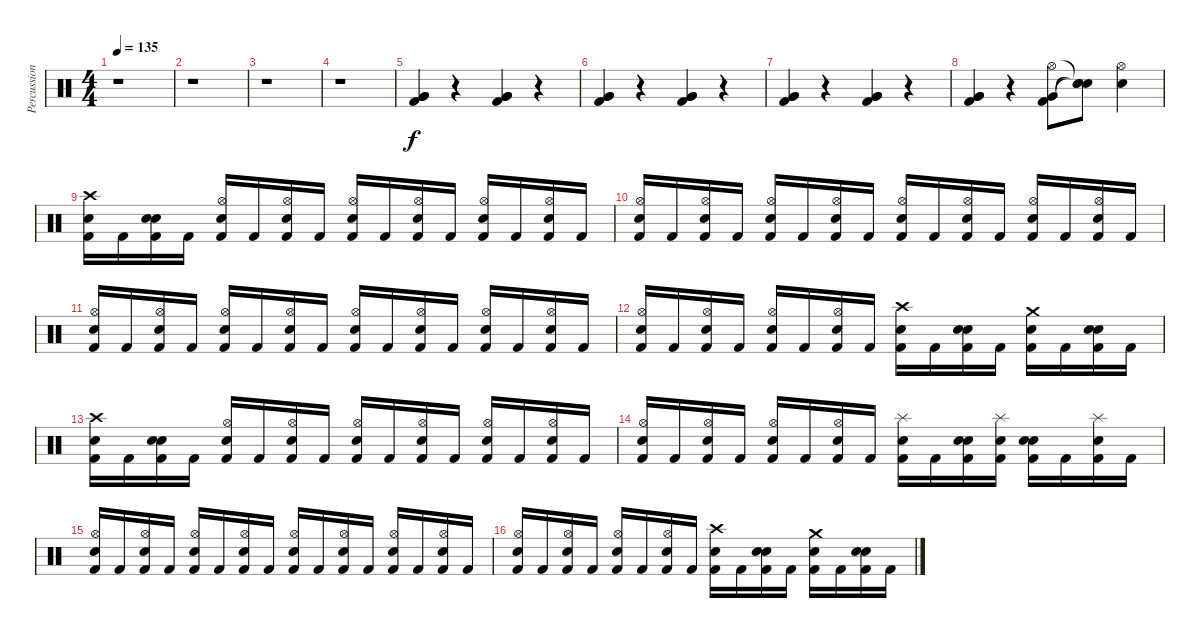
\track ("Percussion" "Percussion") {instrument percussion}
\staff {score}
\articulation defaults
\ts (4 4)
\tempo 135
\clef neutral
\ks c
r.1{dy f} |
r.1 |
r.1 |
r.1 |
("Very Low Tom (hit)" "Very Low Tom (hit)" "Kick (hit) 2").4 r.4 ("Very Low Tom (hit)" "Very Low Tom (hit)" "Kick (hit) 2").4 r.4 |
("Very Low Tom (hit)" "Very Low Tom (hit)" "Kick (hit) 2").4 r.4 ("Very Low Tom (hit)" "Very Low Tom (hit)" "Kick (hit) 2").4 r.4 |
("Very Low Tom (hit)" "Very Low Tom (hit)" "Kick (hit) 2").4 r.4 ("Very Low Tom (hit)" "Very Low Tom (hit)" "Kick (hit) 2").4 r.4 |
("Very Low Tom (hit)" "Very Low Tom (hit)" "Kick (hit) 2").4 r.4 ("Hi-Hat (open)" "Very Low Tom (hit)" "Kick (hit) 2").8 ("Snare (hit)"{t} "Snare (hit)"{t} "Snare (hit)"{t}).8 ("Hi-Hat (open)" "Snare (hit) 2").4 |
("Crash high (hit)" "Snare (hit) 2" "Kick (hit) 2").16 "Kick (hit) 2".16 ("Snare (hit)" "Snare (hit)" "Kick (hit) 2").16 "Kick (hit) 2".16 ("Hi-Hat (open)" "Snare (hit) 2" "Kick (hit) 2").16 "Kick (hit) 2".16 ("Hi-Hat (open)" "Snare (hit)" "Kick (hit) 2").16 "Kick (hit) 2".16 ("Hi-Hat (open)" "Snare (hit) 2" "Kick (hit) 2").16 "Kick (hit) 2".16 ("Hi-Hat (open)" "Snare (hit)" "Kick (hit) 2").16 "Kick (hit) 2".16 ("Hi-Hat (open)" "Snare (hit) 2" "Kick (hit) 2").16 "Kick (hit) 2".16 ("Hi-Hat (open)" "Snare (hit)" "Kick (hit) 2").16 "Kick (hit) 2".16 |
("Hi-Hat (open)" "Snare (hit) 2" "Kick (hit) 2").16 "Kick (hit) 2".16 ("Hi-Hat (open)" "Snare (hit)" "Kick (hit) 2").16 "Kick (hit) 2".16 ("Hi-Hat (open)" "Snare (hit) 2" "Kick (hit) 2").16 "Kick (hit) 2".16 ("Hi-Hat (open)" "Snare (hit)" "Kick (hit) 2").16 "Kick (hit) 2".16 ("Hi-Hat (open)" "Snare (hit) 2" "Kick (hit) 2").16 "Kick (hit) 2".16 ("Hi-Hat (open)" "Snare (hit)" "Kick (hit) 2").16 "Kick (hit) 2".16 ("Hi-Hat (open)" "Snare (hit) 2" "Kick (hit) 2").16 "Kick (hit) 2".16 ("Hi-Hat (open)" "Snare (hit)" "Kick (hit) 2").16 "Kick (hit) 2".16 |
("Hi-Hat (open)" "Snare (hit) 2" "Kick (hit) 2").16 "Kick (hit) 2".16 ("Hi-Hat (open)" "Snare (hit)" "Kick (hit) 2").16 "Kick (hit) 2".16 ("Hi-Hat (open)" "Snare (hit) 2" "Kick (hit) 2").16 "Kick (hit) 2".16 ("Hi-Hat (open)" "Snare (hit)" "Kick (hit) 2").16 "Kick (hit) 2".16 ("Hi-Hat (open)" "Snare (hit) 2" "Kick (hit) 2").16 "Kick (hit) 2".16 ("Hi-Hat (open)" "Snare (hit)" "Kick (hit) 2").16 "Kick (hit) 2".16 ("Hi-Hat (open)" "Snare (hit) 2" "Kick (hit) 2").16 "Kick (hit) 2".16 ("Hi-Hat (open)" "Snare (hit)" "Kick (hit) 2").16 "Kick (hit) 2".16 |
("Hi-Hat (open)" "Snare (hit) 2" "Kick (hit) 2").16 "Kick (hit) 2".16 ("Hi-Hat (open)" "Snare (hit)" "Kick (hit) 2").16 "Kick (hit) 2".16 ("Hi-Hat (open)" "Snare (hit) 2" "Kick (hit) 2").16 "Kick (hit) 2".16 ("Hi-Hat (open)" "Snare (hit)" "Kick (hit) 2").16 "Kick (hit) 2".16 ("Crash high (hit)" "Snare (hit) 2" "Kick (hit) 2").16 "Kick (hit) 2".16 ("Snare (hit)" "Snare (hit)" "Kick (hit) 2").16 "Kick (hit) 2".16 ("Crash medium (hit)" "Snare (hit) 2" "Kick (hit) 2").16 "Kick (hit) 2".16 ("Snare (hit)" "Snare (hit)" "Kick (hit) 2").16 "Kick (hit) 2".16 |
("Crash high (hit)" "Snare (hit) 2" "Kick (hit) 2").16 "Kick (hit) 2".16 ("Snare (hit)" "Snare (hit)" "Kick (hit) 2").16 "Kick (hit) 2".16 ("Hi-Hat (open)" "Snare (hit) 2" "Kick (hit) 2").16 "Kick (hit) 2".16 ("Hi-Hat (open)" "Snare (hit)" "Kick (hit) 2").16 "Kick (hit) 2".16 ("Hi-Hat (open)" "Snare (hit) 2" "Kick (hit) 2").16 "Kick (hit) 2".16 ("Hi-Hat (open)" "Snare (hit)" "Kick (hit) 2").16 "Kick (hit) 2".16 ("Hi-Hat (open)" "Snare (hit) 2" "Kick (hit) 2").16 "Kick (hit) 2".16 ("Hi-Hat (open)" "Snare (hit)" "Kick (hit) 2").16 "Kick (hit) 2".16 |
("Hi-Hat (open)" "Snare (hit) 2" "Kick (hit) 2").16 "Kick (hit) 2".16 ("Hi-Hat (open)" "Snare (hit)" "Kick (hit) 2").16 "Kick (hit) 2".16 ("Hi-Hat (open)" "Snare (hit) 2" "Kick (hit) 2").16 "Kick (hit) 2".16 ("Hi-Hat (open)" "Snare (hit)" "Kick (hit) 2").16 "Kick (hit) 2".16 ("Splash (hit)" "Snare (hit) 2" "Kick (hit) 2").16 "Kick (hit) 2".16 ("Snare (hit)" "Snare (hit)" "Kick (hit) 2").16 ("Splash (hit)" "Snare (hit) 2" "Kick (hit) 2").16 ("Snare (hit)" "Snare (hit)" "Kick (hit) 2").16 "Kick (hit) 2".16 ("Splash (hit)" "Snare (hit) 2" "Kick (hit) 2").16 "Kick (hit) 2".16 |
("Hi-Hat (open)" "Snare (hit) 2" "Kick (hit) 2").16 "Kick (hit) 2".16 ("Hi-Hat (open)" "Snare (hit)" "Kick (hit) 2").16 "Kick (hit) 2".16 ("Hi-Hat (open)" "Snare (hit) 2" "Kick (hit) 2").16 "Kick (hit) 2".16 ("Hi-Hat (open)" "Snare (hit)" "Kick (hit) 2").16 "Kick (hit) 2".16 ("Hi-Hat (open)" "Snare (hit) 2" "Kick (hit) 2").16 "Kick (hit) 2".16 ("Hi-Hat (open)" "Snare (hit)" "Kick (hit) 2").16 "Kick (hit) 2".16 ("Hi-Hat (open)" "Snare (hit) 2" "Kick (hit) 2").16 "Kick (hit) 2".16 ("Hi-Hat (open)" "Snare (hit)" "Kick (hit) 2").16 "Kick (hit) 2".16 |
("Hi-Hat (open)" "Snare (hit) 2" "Kick (hit) 2").16 "Kick (hit) 2".16 ("Hi-Hat (open)" "Snare (hit)" "Kick (hit) 2").16 "Kick (hit) 2".16 ("Hi-Hat (open)" "Snare (hit) 2" "Kick (hit) 2").16 "Kick (hit) 2".16 ("Hi-Hat (open)" "Snare (hit)" "Kick (hit) 2").16 "Kick (hit) 2".16 ("Crash high (hit)" "Snare (hit) 2" "Kick (hit) 2").16 "Kick (hit) 2".16 ("Snare (hit)" "Snare (hit)" "Kick (hit) 2").16 "Kick (hit) 2".16 ("Crash medium (hit)" "Snare (hit) 2" "Kick (hit) 2").16 "Kick (hit) 2".16 ("Snare (hit)" "Snare (hit)" "Kick (hit) 2").16 "Kick (hit) 2".16
